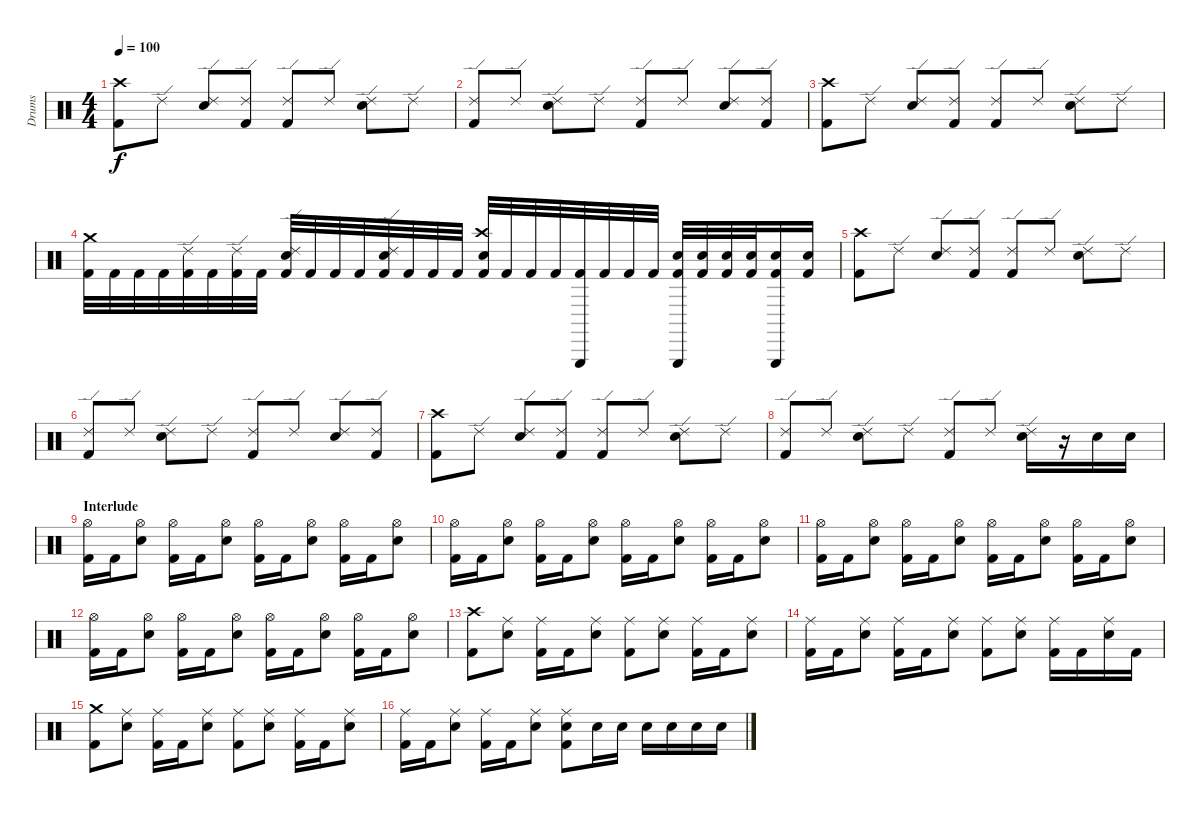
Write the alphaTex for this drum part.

\track ("Drums" "Drums") {instrument percussion}
\staff {score}
\articulation defaults
\ts (4 4)
\tempo 100
\clef neutral
\ks c
("Crash high (hit)" "Kick (hit) 2").8{dy f} "Ride (edge) 2".8 ("Ride (edge) 2" "Snare (hit) 2").8 ("Ride (edge) 2" "Kick (hit) 2").8 ("Ride (edge) 2" "Kick (hit) 2").8 "Ride (edge) 2".8 ("Ride (edge) 2" "Snare (hit) 2").8 "Ride (edge) 2".8 |
("Ride (edge) 2" "Kick (hit) 2").8 "Ride (edge) 2".8 ("Ride (edge) 2" "Snare (hit) 2").8 "Ride (edge) 2".8 ("Ride (edge) 2" "Kick (hit) 2").8 "Ride (edge) 2".8 ("Ride (edge) 2" "Snare (hit) 2").8 ("Ride (edge) 2" "Kick (hit) 2").8 |
("Crash high (hit)" "Kick (hit) 2").8 "Ride (edge) 2".8 ("Ride (edge) 2" "Snare (hit) 2").8 ("Ride (edge) 2" "Kick (hit) 2").8 ("Ride (edge) 2" "Kick (hit) 2").8 "Ride (edge) 2".8 ("Ride (edge) 2" "Snare (hit) 2").8 "Ride (edge) 2".8 |
("Crash medium (hit)" "Kick (hit) 2").32 "Kick (hit) 2".32 "Kick (hit) 2".32 "Kick (hit) 2".32 ("Ride (edge) 2" "Kick (hit) 2").32 "Kick (hit) 2".32 ("Ride (edge) 2" "Kick (hit) 2").32 "Kick (hit) 2".32 ("Ride (edge) 2" "Snare (hit) 2" "Kick (hit) 2").32 "Kick (hit) 2".32 "Kick (hit) 2".32 "Kick (hit) 2".32 ("Ride (edge) 2" "Snare (hit) 2" "Kick (hit) 2").32 "Kick (hit) 2".32 "Kick (hit) 2".32 "Kick (hit) 2".32 ("Crash high (hit)" "Snare (hit) 2" "Kick (hit) 2").32 "Kick (hit) 2".32 "Kick (hit) 2".32 "Kick (hit) 2".32 ("Triangle (hit)" "Kick (hit) 2").32 "Kick (hit) 2".32 "Kick (hit) 2".32 "Kick (hit) 2".32 ("Triangle (hit)" "Snare (hit) 2" "Kick (hit) 2").32 ("Snare (hit) 2" "Kick (hit) 2").32 ("Snare (hit) 2" "Kick (hit) 2").32 ("Snare (hit) 2" "Kick (hit) 2").32 ("Triangle (hit)" "Snare (hit) 2" "Kick (hit) 2").16 ("Snare (hit) 2" "Kick (hit) 2").16 |
("Crash high (hit)" "Kick (hit) 2").8 "Ride (edge) 2".8 ("Ride (edge) 2" "Snare (hit) 2").8 ("Ride (edge) 2" "Kick (hit) 2").8 ("Ride (edge) 2" "Kick (hit) 2").8 "Ride (edge) 2".8 ("Ride (edge) 2" "Snare (hit) 2").8 "Ride (edge) 2".8 |
("Ride (edge) 2" "Kick (hit) 2").8 "Ride (edge) 2".8 ("Ride (edge) 2" "Snare (hit) 2").8 "Ride (edge) 2".8 ("Ride (edge) 2" "Kick (hit) 2").8 "Ride (edge) 2".8 ("Ride (edge) 2" "Snare (hit) 2").8 ("Ride (edge) 2" "Kick (hit) 2").8 |
("Crash high (hit)" "Kick (hit) 2").8 "Ride (edge) 2".8 ("Ride (edge) 2" "Snare (hit) 2").8 ("Ride (edge) 2" "Kick (hit) 2").8 ("Ride (edge) 2" "Kick (hit) 2").8 "Ride (edge) 2".8 ("Ride (edge) 2" "Snare (hit) 2").8 "Ride (edge) 2".8 |
("Ride (edge) 2" "Kick (hit) 2").8 "Ride (edge) 2".8 ("Ride (edge) 2" "Snare (hit) 2").8 "Ride (edge) 2".8 ("Ride (edge) 2" "Kick (hit) 2").8 "Ride (edge) 2".8 ("Ride (edge) 2" "Snare (hit) 2").16 r.16 "Snare (hit) 2".16 "Snare (hit) 2".16 |
\section ("" "Interlude")
("Hi-Hat (open)" "Kick (hit) 2").16 "Kick (hit) 2".16 ("Hi-Hat (open)" "Snare (hit) 2").8 ("Hi-Hat (open)" "Kick (hit) 2").16 "Kick (hit) 2".16 ("Hi-Hat (open)" "Snare (hit) 2").8 ("Hi-Hat (open)" "Kick (hit) 2").16 "Kick (hit) 2".16 ("Hi-Hat (open)" "Snare (hit) 2").8 ("Hi-Hat (open)" "Kick (hit) 2").16 "Kick (hit) 2".16 ("Hi-Hat (open)" "Snare (hit) 2").8 |
("Hi-Hat (open)" "Kick (hit) 2").16 "Kick (hit) 2".16 ("Hi-Hat (open)" "Snare (hit) 2").8 ("Hi-Hat (open)" "Kick (hit) 2").16 "Kick (hit) 2".16 ("Hi-Hat (open)" "Snare (hit) 2").8 ("Hi-Hat (open)" "Kick (hit) 2").16 "Kick (hit) 2".16 ("Hi-Hat (open)" "Snare (hit) 2").8 ("Hi-Hat (open)" "Kick (hit) 2").16 "Kick (hit) 2".16 ("Hi-Hat (open)" "Snare (hit) 2").8 |
("Hi-Hat (open)" "Kick (hit) 2").16 "Kick (hit) 2".16 ("Hi-Hat (open)" "Snare (hit) 2").8 ("Hi-Hat (open)" "Kick (hit) 2").16 "Kick (hit) 2".16 ("Hi-Hat (open)" "Snare (hit) 2").8 ("Hi-Hat (open)" "Kick (hit) 2").16 "Kick (hit) 2".16 ("Hi-Hat (open)" "Snare (hit) 2").8 ("Hi-Hat (open)" "Kick (hit) 2").16 "Kick (hit) 2".16 ("Hi-Hat (open)" "Snare (hit) 2").8 |
("Hi-Hat (open)" "Kick (hit) 2").16 "Kick (hit) 2".16 ("Hi-Hat (open)" "Snare (hit) 2").8 ("Hi-Hat (open)" "Kick (hit) 2").16 "Kick (hit) 2".16 ("Hi-Hat (open)" "Snare (hit) 2").8 ("Hi-Hat (open)" "Kick (hit) 2").16 "Kick (hit) 2".16 ("Hi-Hat (open)" "Snare (hit) 2").8 ("Hi-Hat (open)" "Kick (hit) 2").16 "Kick (hit) 2".16 ("Hi-Hat (open)" "Snare (hit) 2").8 |
("Crash high (hit)" "Kick (hit) 2").8 ("Ride (middle)" "Snare (hit) 2").8 ("Ride (middle)" "Kick (hit) 2").16 "Kick (hit) 2".16 ("Ride (middle)" "Snare (hit) 2").8 ("Ride (middle)" "Kick (hit) 2").8 ("Ride (middle)" "Snare (hit) 2").8 ("Ride (middle)" "Kick (hit) 2").16 "Kick (hit) 2".16 ("Ride (middle)" "Snare (hit) 2").8 |
("Ride (middle)" "Kick (hit) 2").16 "Kick (hit) 2".16 ("Ride (middle)" "Snare (hit) 2").8 ("Ride (middle)" "Kick (hit) 2").16 "Kick (hit) 2".16 ("Ride (middle)" "Snare (hit) 2").8 ("Ride (middle)" "Kick (hit) 2").8 ("Ride (middle)" "Snare (hit) 2").8 ("Ride (middle)" "Kick (hit) 2").16 "Kick (hit) 2".16 ("Ride (middle)" "Snare (hit) 2").16 "Kick (hit) 2".16 |
("Crash medium (hit)" "Kick (hit) 2").8 ("Ride (middle)" "Snare (hit) 2").8 ("Ride (middle)" "Kick (hit) 2").16 "Kick (hit) 2".16 ("Ride (middle)" "Snare (hit) 2").8 ("Ride (middle)" "Kick (hit) 2").8 ("Ride (middle)" "Snare (hit) 2").8 ("Ride (middle)" "Kick (hit) 2").16 "Kick (hit) 2".16 ("Ride (middle)" "Snare (hit) 2").8 |
("Ride (middle)" "Kick (hit) 2").16 "Kick (hit) 2".16 ("Ride (middle)" "Snare (hit) 2").8 ("Ride (middle)" "Kick (hit) 2").16 "Kick (hit) 2".16 ("Ride (middle)" "Snare (hit) 2").8 ("Ride (middle)" "Snare (hit) 2" "Kick (hit) 2").8 "Snare (hit) 2".16 "Snare (hit) 2".16 "Snare (hit) 2".16 "Snare (hit) 2".16 "Snare (hit) 2".16 "Snare (hit) 2".16
